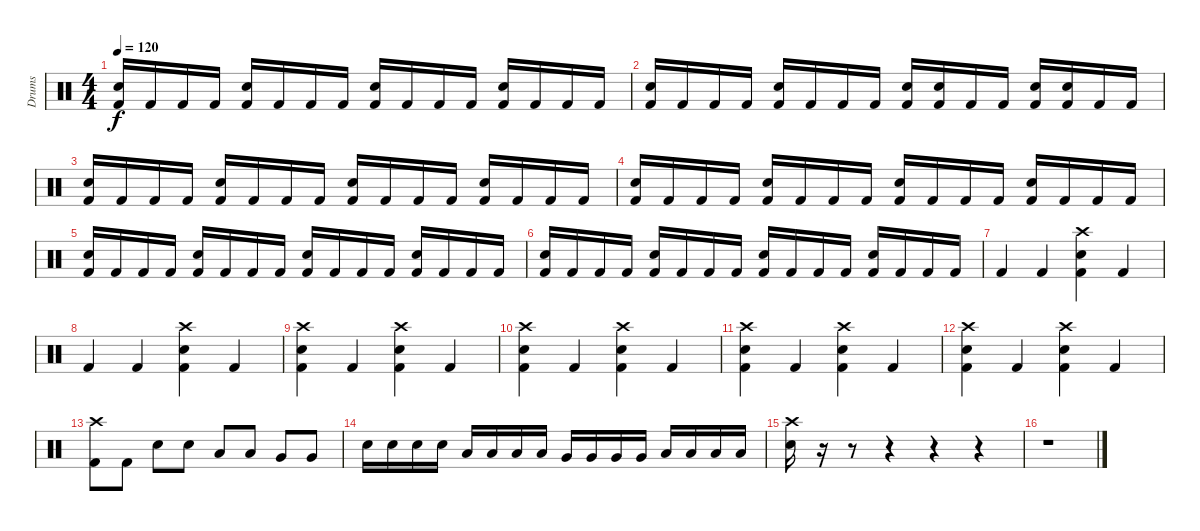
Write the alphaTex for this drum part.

\track ("Drums" "Drums") {instrument percussion}
\staff {score}
\articulation defaults
\ts (4 4)
\tempo 120
\clef neutral
\ks c
("Kick (hit) 2" "Electric Snare (hit)").16{dy f} "Kick (hit) 2".16 "Kick (hit) 2".16 "Kick (hit) 2".16 ("Kick (hit) 2" "Electric Snare (hit)").16 "Kick (hit) 2".16 "Kick (hit) 2".16 "Kick (hit) 2".16 ("Kick (hit) 2" "Electric Snare (hit)").16 "Kick (hit) 2".16 "Kick (hit) 2".16 "Kick (hit) 2".16 ("Kick (hit) 2" "Electric Snare (hit)").16 "Kick (hit) 2".16 "Kick (hit) 2".16 "Kick (hit) 2".16 |
("Kick (hit) 2" "Electric Snare (hit)").16 "Kick (hit) 2".16 "Kick (hit) 2".16 "Kick (hit) 2".16 ("Kick (hit) 2" "Electric Snare (hit)").16 "Kick (hit) 2".16 "Kick (hit) 2".16 "Kick (hit) 2".16 ("Kick (hit) 2" "Electric Snare (hit)").16 ("Kick (hit) 2" "Electric Snare (hit)").16 "Kick (hit) 2".16 "Kick (hit) 2".16 ("Kick (hit) 2" "Electric Snare (hit)").16 ("Kick (hit) 2" "Electric Snare (hit)").16 "Kick (hit) 2".16 "Kick (hit) 2".16 |
("Kick (hit) 2" "Electric Snare (hit)").16 "Kick (hit) 2".16 "Kick (hit) 2".16 "Kick (hit) 2".16 ("Kick (hit) 2" "Electric Snare (hit)").16 "Kick (hit) 2".16 "Kick (hit) 2".16 "Kick (hit) 2".16 ("Kick (hit) 2" "Electric Snare (hit)").16 "Kick (hit) 2".16 "Kick (hit) 2".16 "Kick (hit) 2".16 ("Kick (hit) 2" "Electric Snare (hit)").16 "Kick (hit) 2".16 "Kick (hit) 2".16 "Kick (hit) 2".16 |
("Kick (hit) 2" "Electric Snare (hit)").16 "Kick (hit) 2".16 "Kick (hit) 2".16 "Kick (hit) 2".16 ("Kick (hit) 2" "Electric Snare (hit)").16 "Kick (hit) 2".16 "Kick (hit) 2".16 "Kick (hit) 2".16 ("Kick (hit) 2" "Electric Snare (hit)").16 "Kick (hit) 2".16 "Kick (hit) 2".16 "Kick (hit) 2".16 ("Kick (hit) 2" "Electric Snare (hit)").16 "Kick (hit) 2".16 "Kick (hit) 2".16 "Kick (hit) 2".16 |
("Kick (hit) 2" "Electric Snare (hit)").16 "Kick (hit) 2".16 "Kick (hit) 2".16 "Kick (hit) 2".16 ("Kick (hit) 2" "Electric Snare (hit)").16 "Kick (hit) 2".16 "Kick (hit) 2".16 "Kick (hit) 2".16 ("Kick (hit) 2" "Electric Snare (hit)").16 "Kick (hit) 2".16 "Kick (hit) 2".16 "Kick (hit) 2".16 ("Kick (hit) 2" "Electric Snare (hit)").16 "Kick (hit) 2".16 "Kick (hit) 2".16 "Kick (hit) 2".16 |
("Kick (hit) 2" "Electric Snare (hit)").16 "Kick (hit) 2".16 "Kick (hit) 2".16 "Kick (hit) 2".16 ("Kick (hit) 2" "Electric Snare (hit)").16 "Kick (hit) 2".16 "Kick (hit) 2".16 "Kick (hit) 2".16 ("Kick (hit) 2" "Electric Snare (hit)").16 "Kick (hit) 2".16 "Kick (hit) 2".16 "Kick (hit) 2".16 ("Kick (hit) 2" "Electric Snare (hit)").16 "Kick (hit) 2".16 "Kick (hit) 2".16 "Kick (hit) 2".16 |
"Kick (hit) 2".4 "Kick (hit) 2".4 ("Kick (hit) 2" "Electric Snare (hit)" "Crash high (hit)").4 "Kick (hit) 2".4 |
"Kick (hit) 2".4 "Kick (hit) 2".4 ("Kick (hit) 2" "Electric Snare (hit)" "Crash high (hit)").4 "Kick (hit) 2".4 |
("Kick (hit) 2" "Electric Snare (hit)" "Crash high (hit)").4 "Kick (hit) 2".4 ("Kick (hit) 2" "Electric Snare (hit)" "Crash high (hit)").4 "Kick (hit) 2".4 |
("Kick (hit) 2" "Electric Snare (hit)" "Crash high (hit)").4 "Kick (hit) 2".4 ("Kick (hit) 2" "Electric Snare (hit)" "Crash high (hit)").4 "Kick (hit) 2".4 |
("Kick (hit) 2" "Electric Snare (hit)" "Crash high (hit)").4 "Kick (hit) 2".4 ("Kick (hit) 2" "Electric Snare (hit)" "Crash high (hit)").4 "Kick (hit) 2".4 |
("Kick (hit) 2" "Electric Snare (hit)" "Crash high (hit)").4 "Kick (hit) 2".4 ("Kick (hit) 2" "Electric Snare (hit)" "Crash high (hit)").4 "Kick (hit) 2".4 |
("Kick (hit) 2" "Crash high (hit)").8 "Kick (hit) 2".8 "Electric Snare (hit)".8 "Electric Snare (hit)".8 "Low Tom (hit)".8 "Low Tom (hit)".8 "Very Low Tom (hit)".8 "Very Low Tom (hit)".8 |
"Electric Snare (hit)".16 "Electric Snare (hit)".16 "Electric Snare (hit)".16 "Electric Snare (hit)".16 "Low Tom (hit)".16 "Low Tom (hit)".16 "Low Tom (hit)".16 "Low Tom (hit)".16 "Very Low Tom (hit)".16 "Very Low Tom (hit)".16 "Very Low Tom (hit)".16 "Very Low Tom (hit)".16 "Low Floor Tom (hit)".16 "Low Floor Tom (hit)".16 "Low Floor Tom (hit)".16 "Low Floor Tom (hit)".16 |
("Electric Snare (hit)" "Crash high (hit)").16 r.16 r.8 r.4 r.4 r.4 |
r.1
